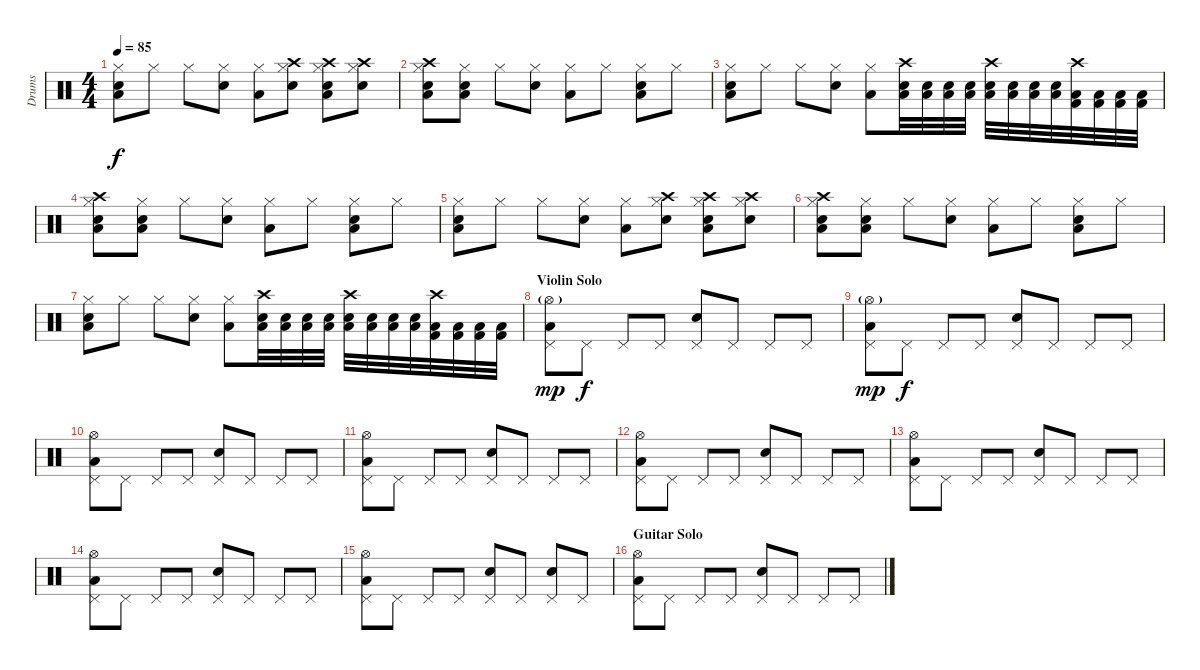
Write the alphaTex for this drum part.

\track ("Drums" "Drums") {instrument percussion}
\staff {score}
\articulation defaults
\ts (4 4)
\tempo 85
\clef neutral
\ks c
("Low Tom (hit)" "Snare (hit) 2" "Hi-Hat (closed)").8{dy f} "Hi-Hat (closed)".8 "Hi-Hat (closed)".8 ("Snare (hit) 2" "Hi-Hat (closed)").8 ("Low Tom (hit)" "Hi-Hat (closed)").8 ("Crash high (hit)" "Snare (hit) 2" "Hi-Hat (closed)").8 ("Low Tom (hit)" "Snare (hit) 2" "Hi-Hat (closed)" "Crash high (hit)").8 ("Crash high (hit)" "Snare (hit) 2" "Hi-Hat (closed)").8 |
("Low Tom (hit)" "Snare (hit) 2" "Hi-Hat (closed)" "Crash high (hit)").8 ("Low Tom (hit)" "Snare (hit) 2" "Hi-Hat (closed)").8 "Hi-Hat (closed)".8 ("Snare (hit) 2" "Hi-Hat (closed)").8 ("Low Tom (hit)" "Hi-Hat (closed)").8 "Hi-Hat (closed)".8 ("Low Tom (hit)" "Snare (hit) 2" "Hi-Hat (closed)").8 "Hi-Hat (closed)".8 |
("Low Tom (hit)" "Snare (hit) 2" "Hi-Hat (closed)").8 "Hi-Hat (closed)".8 "Hi-Hat (closed)".8 ("Snare (hit) 2" "Hi-Hat (closed)").8 ("Low Tom (hit)" "Hi-Hat (closed)").8 ("Low Tom (hit)" "Electric Snare (hit)" "Crash high (hit)").32 ("Low Tom (hit)" "Electric Snare (hit)").32 ("Low Tom (hit)" "Electric Snare (hit)").32 ("Low Tom (hit)" "Electric Snare (hit)").32 ("Low Tom (hit)" "Snare (hit) 2" "Crash high (hit)").32 ("Low Tom (hit)" "Snare (hit) 2").32 ("Low Tom (hit)" "Snare (hit) 2").32 ("Low Tom (hit)" "Snare (hit) 2").32 ("Low Tom (hit)" "Kick (hit) 2" "Crash high (hit)").32 ("Low Tom (hit)" "Kick (hit) 2").32 ("Low Tom (hit)" "Kick (hit) 2").32 ("Low Tom (hit)" "Kick (hit) 2").32 |
("Low Tom (hit)" "Snare (hit) 2" "Hi-Hat (closed)" "Crash high (hit)").8 ("Low Tom (hit)" "Snare (hit) 2" "Hi-Hat (closed)").8 "Hi-Hat (closed)".8 ("Snare (hit) 2" "Hi-Hat (closed)").8 ("Low Tom (hit)" "Hi-Hat (closed)").8 "Hi-Hat (closed)".8 ("Low Tom (hit)" "Snare (hit) 2" "Hi-Hat (closed)").8 "Hi-Hat (closed)".8 |
("Low Tom (hit)" "Snare (hit) 2" "Hi-Hat (closed)").8 "Hi-Hat (closed)".8 "Hi-Hat (closed)".8 ("Snare (hit) 2" "Hi-Hat (closed)").8 ("Low Tom (hit)" "Hi-Hat (closed)").8 ("Crash high (hit)" "Snare (hit) 2" "Hi-Hat (closed)").8 ("Low Tom (hit)" "Snare (hit) 2" "Hi-Hat (closed)" "Crash high (hit)").8 ("Crash high (hit)" "Snare (hit) 2" "Hi-Hat (closed)").8 |
("Low Tom (hit)" "Snare (hit) 2" "Hi-Hat (closed)" "Crash high (hit)").8 ("Low Tom (hit)" "Snare (hit) 2" "Hi-Hat (closed)").8 "Hi-Hat (closed)".8 ("Snare (hit) 2" "Hi-Hat (closed)").8 ("Low Tom (hit)" "Hi-Hat (closed)").8 "Hi-Hat (closed)".8 ("Low Tom (hit)" "Snare (hit) 2" "Hi-Hat (closed)").8 "Hi-Hat (closed)".8 |
("Low Tom (hit)" "Snare (hit) 2" "Hi-Hat (closed)").8 "Hi-Hat (closed)".8 "Hi-Hat (closed)".8 ("Snare (hit) 2" "Hi-Hat (closed)").8 ("Low Tom (hit)" "Hi-Hat (closed)").8 ("Low Tom (hit)" "Electric Snare (hit)" "Crash high (hit)").32 ("Low Tom (hit)" "Electric Snare (hit)").32 ("Low Tom (hit)" "Electric Snare (hit)").32 ("Low Tom (hit)" "Electric Snare (hit)").32 ("Low Tom (hit)" "Snare (hit) 2" "Crash high (hit)").32 ("Low Tom (hit)" "Snare (hit) 2").32 ("Low Tom (hit)" "Snare (hit) 2").32 ("Low Tom (hit)" "Snare (hit) 2").32 ("Low Tom (hit)" "Kick (hit) 2" "Crash high (hit)").32 ("Low Tom (hit)" "Kick (hit) 2").32 ("Low Tom (hit)" "Kick (hit) 2").32 ("Low Tom (hit)" "Kick (hit) 2").32 |
\section ("" "Violin Solo")
("Pedal Hi-Hat (hit)" "Hi-Hat (open)"{g} "Low Tom (hit)").8{dy mp} "Pedal Hi-Hat (hit)".8{dy f} "Pedal Hi-Hat (hit)".8 "Pedal Hi-Hat (hit)".8 ("Pedal Hi-Hat (hit)" "Snare (hit) 2").8 "Pedal Hi-Hat (hit)".8 "Pedal Hi-Hat (hit)".8 "Pedal Hi-Hat (hit)".8 |
("Pedal Hi-Hat (hit)" "Hi-Hat (open)"{g} "Low Tom (hit)").8{dy mp} "Pedal Hi-Hat (hit)".8{dy f} "Pedal Hi-Hat (hit)".8 "Pedal Hi-Hat (hit)".8 ("Pedal Hi-Hat (hit)" "Snare (hit) 2").8 "Pedal Hi-Hat (hit)".8 "Pedal Hi-Hat (hit)".8 "Pedal Hi-Hat (hit)".8 |
("Pedal Hi-Hat (hit)" "Hi-Hat (open)" "Low Tom (hit)").8 "Pedal Hi-Hat (hit)".8 "Pedal Hi-Hat (hit)".8 "Pedal Hi-Hat (hit)".8 ("Pedal Hi-Hat (hit)" "Snare (hit) 2").8 "Pedal Hi-Hat (hit)".8 "Pedal Hi-Hat (hit)".8 "Pedal Hi-Hat (hit)".8 |
("Pedal Hi-Hat (hit)" "Hi-Hat (open)" "Low Tom (hit)").8 "Pedal Hi-Hat (hit)".8 "Pedal Hi-Hat (hit)".8 "Pedal Hi-Hat (hit)".8 ("Pedal Hi-Hat (hit)" "Snare (hit) 2").8 "Pedal Hi-Hat (hit)".8 "Pedal Hi-Hat (hit)".8 "Pedal Hi-Hat (hit)".8 |
("Pedal Hi-Hat (hit)" "Hi-Hat (open)" "Low Tom (hit)").8 "Pedal Hi-Hat (hit)".8 "Pedal Hi-Hat (hit)".8 "Pedal Hi-Hat (hit)".8 ("Pedal Hi-Hat (hit)" "Snare (hit) 2").8 "Pedal Hi-Hat (hit)".8 "Pedal Hi-Hat (hit)".8 "Pedal Hi-Hat (hit)".8 |
("Pedal Hi-Hat (hit)" "Hi-Hat (open)" "Low Tom (hit)").8 "Pedal Hi-Hat (hit)".8 "Pedal Hi-Hat (hit)".8 "Pedal Hi-Hat (hit)".8 ("Pedal Hi-Hat (hit)" "Snare (hit) 2").8 "Pedal Hi-Hat (hit)".8 "Pedal Hi-Hat (hit)".8 "Pedal Hi-Hat (hit)".8 |
("Pedal Hi-Hat (hit)" "Hi-Hat (open)" "Low Tom (hit)").8 "Pedal Hi-Hat (hit)".8 "Pedal Hi-Hat (hit)".8 "Pedal Hi-Hat (hit)".8 ("Pedal Hi-Hat (hit)" "Snare (hit) 2").8 "Pedal Hi-Hat (hit)".8 "Pedal Hi-Hat (hit)".8 "Pedal Hi-Hat (hit)".8 |
("Pedal Hi-Hat (hit)" "Hi-Hat (open)" "Low Tom (hit)").8 "Pedal Hi-Hat (hit)".8 "Pedal Hi-Hat (hit)".8 "Pedal Hi-Hat (hit)".8 ("Pedal Hi-Hat (hit)" "Snare (hit) 2").8 "Pedal Hi-Hat (hit)".8 ("Pedal Hi-Hat (hit)" "Snare (hit) 2").8 "Pedal Hi-Hat (hit)".8 |
\section ("" "Guitar Solo")
("Pedal Hi-Hat (hit)" "Hi-Hat (open)" "Low Tom (hit)").8 "Pedal Hi-Hat (hit)".8 "Pedal Hi-Hat (hit)".8 "Pedal Hi-Hat (hit)".8 ("Pedal Hi-Hat (hit)" "Snare (hit) 2").8 "Pedal Hi-Hat (hit)".8 "Pedal Hi-Hat (hit)".8 "Pedal Hi-Hat (hit)".8
